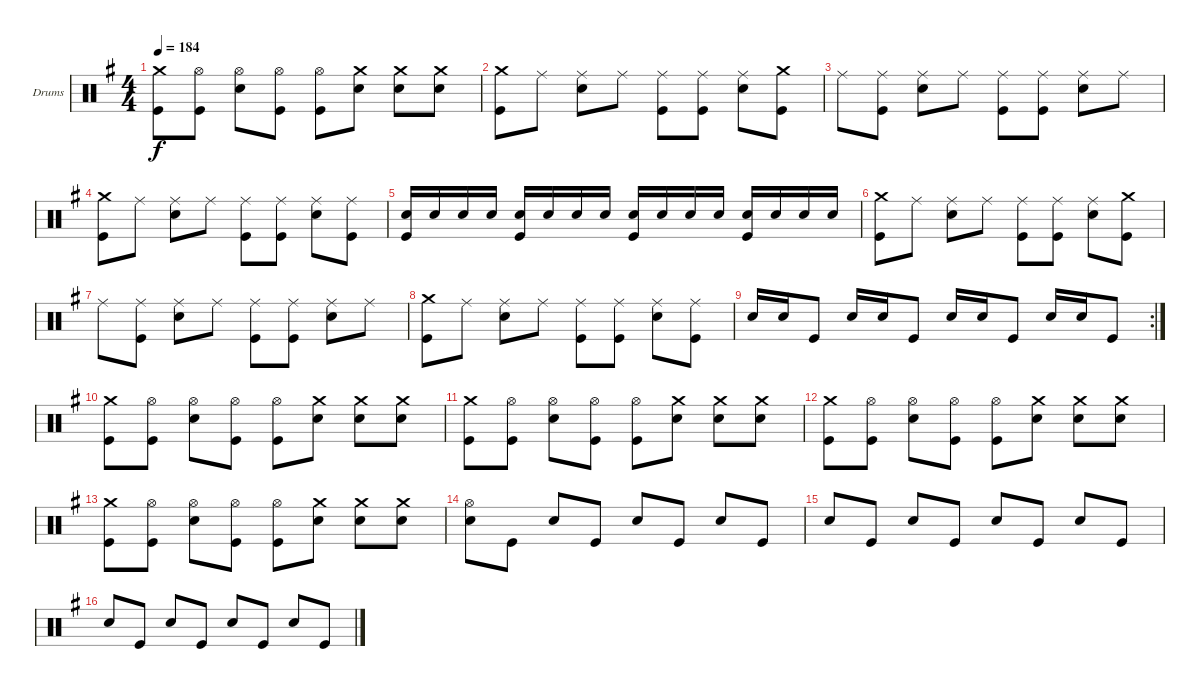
\defaultSystemsLayout 4
\bracketExtendMode groupsimilarinstruments
\firstSystemTrackNameOrientation horizontal
\otherSystemsTrackNameOrientation horizontal
\track ("Drumkit" "Drums") {instrument percussion}
\staff {score}
\articulation defaults
\ts (4 4)
\tempo 184
\clef neutral
\ks g
("Crash medium (hit)" "Kick (hit)").8{dy f} ("Hi-Hat (open)" "Kick (hit)").8 ("Hi-Hat (open)" "Snare (hit) 2").8 ("Hi-Hat (open)" "Kick (hit)").8 ("Hi-Hat (open)" "Kick (hit)").8 ("Crash medium (hit)" "Snare (hit) 2").8 ("Crash medium (hit)" "Snare (hit) 2").8 ("Crash medium (hit)" "Snare (hit) 2").8 |
("Crash medium (hit)" "Kick (hit)").8 "Ride (middle)".8 ("Ride (middle)" "Snare (hit) 2").8 "Ride (middle)".8 ("Ride (middle)" "Kick (hit)").8 ("Ride (middle)" "Kick (hit)").8 ("Ride (middle)" "Snare (hit) 2").8 ("Crash medium (hit)" "Kick (hit)").8 |
"Ride (middle)".8 ("Ride (middle)" "Kick (hit)").8 ("Ride (middle)" "Snare (hit) 2").8 "Ride (middle)".8 ("Ride (middle)" "Kick (hit)").8 ("Ride (middle)" "Kick (hit)").8 ("Ride (middle)" "Snare (hit) 2").8 "Ride (middle)".8 |
("Crash medium (hit)" "Kick (hit)").8 "Ride (middle)".8 ("Ride (middle)" "Snare (hit) 2").8 "Ride (middle)".8 ("Ride (middle)" "Kick (hit)").8 ("Ride (middle)" "Kick (hit)").8 ("Ride (middle)" "Snare (hit) 2").8 ("Ride (middle)" "Kick (hit)").8 |
("Snare (hit) 2" "Kick (hit)").16 "Snare (hit) 2".16 "Snare (hit) 2".16 "Snare (hit) 2".16 ("Snare (hit) 2" "Kick (hit)").16 "Snare (hit) 2".16 "Snare (hit) 2".16 "Snare (hit) 2".16 ("Snare (hit) 2" "Kick (hit)").16 "Snare (hit) 2".16 "Snare (hit) 2".16 "Snare (hit) 2".16 ("Snare (hit) 2" "Kick (hit)").16 "Snare (hit) 2".16 "Snare (hit) 2".16 "Snare (hit) 2".16 |
("Crash medium (hit)" "Kick (hit)").8 "Ride (middle)".8 ("Ride (middle)" "Snare (hit) 2").8 "Ride (middle)".8 ("Ride (middle)" "Kick (hit)").8 ("Ride (middle)" "Kick (hit)").8 ("Ride (middle)" "Snare (hit) 2").8 ("Crash medium (hit)" "Kick (hit)").8 |
"Ride (middle)".8 ("Ride (middle)" "Kick (hit)").8 ("Ride (middle)" "Snare (hit) 2").8 "Ride (middle)".8 ("Ride (middle)" "Kick (hit)").8 ("Ride (middle)" "Kick (hit)").8 ("Ride (middle)" "Snare (hit) 2").8 "Ride (middle)".8 |
("Crash medium (hit)" "Kick (hit)").8 "Ride (middle)".8 ("Ride (middle)" "Snare (hit) 2").8 "Ride (middle)".8 ("Ride (middle)" "Kick (hit)").8 ("Ride (middle)" "Kick (hit)").8 ("Ride (middle)" "Snare (hit) 2").8 ("Ride (middle)" "Kick (hit)").8 |
\rc 2 "Snare (hit) 2".16 "Snare (hit) 2".16 "Kick (hit)".8 "Snare (hit) 2".16 "Snare (hit) 2".16 "Kick (hit)".8 "Snare (hit) 2".16 "Snare (hit) 2".16 "Kick (hit)".8 "Snare (hit) 2".16 "Snare (hit) 2".16 "Kick (hit)".8
|
("Crash medium (hit)" "Kick (hit)").8 ("Hi-Hat (open)" "Kick (hit)").8 ("Hi-Hat (open)" "Snare (hit) 2").8 ("Hi-Hat (open)" "Kick (hit)").8 ("Hi-Hat (open)" "Kick (hit)").8 ("Crash medium (hit)" "Snare (hit) 2").8 ("Crash medium (hit)" "Snare (hit) 2").8 ("Crash medium (hit)" "Snare (hit) 2").8 |
("Crash medium (hit)" "Kick (hit)").8 ("Hi-Hat (open)" "Kick (hit)").8 ("Hi-Hat (open)" "Snare (hit) 2").8 ("Hi-Hat (open)" "Kick (hit)").8 ("Hi-Hat (open)" "Kick (hit)").8 ("Crash medium (hit)" "Snare (hit) 2").8 ("Crash medium (hit)" "Snare (hit) 2").8 ("Crash medium (hit)" "Snare (hit) 2").8 |
("Crash medium (hit)" "Kick (hit)").8 ("Hi-Hat (open)" "Kick (hit)").8 ("Hi-Hat (open)" "Snare (hit) 2").8 ("Hi-Hat (open)" "Kick (hit)").8 ("Hi-Hat (open)" "Kick (hit)").8 ("Crash medium (hit)" "Snare (hit) 2").8 ("Crash medium (hit)" "Snare (hit) 2").8 ("Crash medium (hit)" "Snare (hit) 2").8 |
("Crash medium (hit)" "Kick (hit)").8 ("Hi-Hat (open)" "Kick (hit)").8 ("Hi-Hat (open)" "Snare (hit) 2").8 ("Hi-Hat (open)" "Kick (hit)").8 ("Hi-Hat (open)" "Kick (hit)").8 ("Crash medium (hit)" "Snare (hit) 2").8 ("Crash medium (hit)" "Snare (hit) 2").8 ("Crash medium (hit)" "Snare (hit) 2").8 |
("Hi-Hat (open)" "Snare (hit) 2").8 "Kick (hit)".8 "Snare (hit) 2".8 "Kick (hit)".8 "Snare (hit) 2".8 "Kick (hit)".8 "Snare (hit) 2".8 "Kick (hit)".8 |
"Snare (hit) 2".8 "Kick (hit)".8 "Snare (hit) 2".8 "Kick (hit)".8 "Snare (hit) 2".8 "Kick (hit)".8 "Snare (hit) 2".8 "Kick (hit)".8 |
"Snare (hit) 2".8 "Kick (hit)".8 "Snare (hit) 2".8 "Kick (hit)".8 "Snare (hit) 2".8 "Kick (hit)".8 "Snare (hit) 2".8 "Kick (hit)".8
